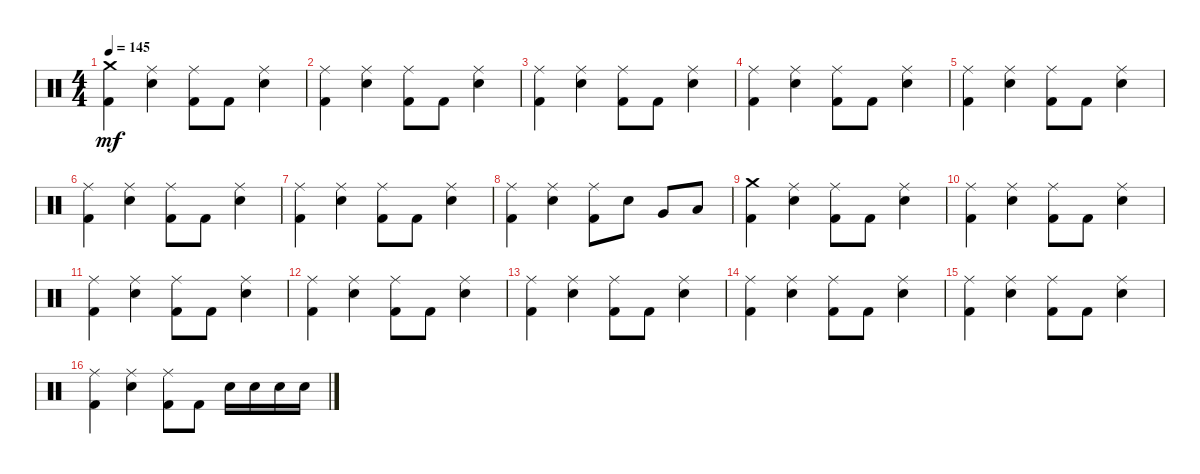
\track "" {instrument percussion}
\staff {score}
\articulation defaults
\ts (4 4)
\tempo 145
\clef neutral
\ks c
("Crash medium (hit)" "Kick (hit) 2").4{dy mf} ("Ride (middle)" "Snare (hit) 2").4 ("Ride (middle)" "Kick (hit) 2").8 "Kick (hit) 2".8 ("Ride (middle)" "Snare (hit) 2").4 |
("Ride (middle)" "Kick (hit) 2").4 ("Ride (middle)" "Snare (hit) 2").4 ("Ride (middle)" "Kick (hit) 2").8 "Kick (hit) 2".8 ("Ride (middle)" "Snare (hit) 2").4 |
("Ride (middle)" "Kick (hit) 2").4 ("Ride (middle)" "Snare (hit) 2").4 ("Ride (middle)" "Kick (hit) 2").8 "Kick (hit) 2".8 ("Ride (middle)" "Snare (hit) 2").4 |
("Ride (middle)" "Kick (hit) 2").4 ("Ride (middle)" "Snare (hit) 2").4 ("Ride (middle)" "Kick (hit) 2").8 "Kick (hit) 2".8 ("Ride (middle)" "Snare (hit) 2").4 |
("Ride (middle)" "Kick (hit) 2").4 ("Ride (middle)" "Snare (hit) 2").4 ("Ride (middle)" "Kick (hit) 2").8 "Kick (hit) 2".8 ("Ride (middle)" "Snare (hit) 2").4 |
("Ride (middle)" "Kick (hit) 2").4 ("Ride (middle)" "Snare (hit) 2").4 ("Ride (middle)" "Kick (hit) 2").8 "Kick (hit) 2".8 ("Ride (middle)" "Snare (hit) 2").4 |
("Ride (middle)" "Kick (hit) 2").4 ("Ride (middle)" "Snare (hit) 2").4 ("Ride (middle)" "Kick (hit) 2").8 "Kick (hit) 2".8 ("Ride (middle)" "Snare (hit) 2").4 |
("Ride (middle)" "Kick (hit) 2").4 ("Ride (middle)" "Snare (hit) 2").4 ("Ride (middle)" "Kick (hit) 2").8 "Snare (hit) 2".8 "Very Low Tom (hit)".8 "Low Floor Tom (hit)".8 |
("Crash medium (hit)" "Kick (hit) 2").4 ("Ride (middle)" "Snare (hit) 2").4 ("Ride (middle)" "Kick (hit) 2").8 "Kick (hit) 2".8 ("Ride (middle)" "Snare (hit) 2").4 |
("Ride (middle)" "Kick (hit) 2").4 ("Ride (middle)" "Snare (hit) 2").4 ("Ride (middle)" "Kick (hit) 2").8 "Kick (hit) 2".8 ("Ride (middle)" "Snare (hit) 2").4 |
("Ride (middle)" "Kick (hit) 2").4 ("Ride (middle)" "Snare (hit) 2").4 ("Ride (middle)" "Kick (hit) 2").8 "Kick (hit) 2".8 ("Ride (middle)" "Snare (hit) 2").4 |
("Ride (middle)" "Kick (hit) 2").4 ("Ride (middle)" "Snare (hit) 2").4 ("Ride (middle)" "Kick (hit) 2").8 "Kick (hit) 2".8 ("Ride (middle)" "Snare (hit) 2").4 |
("Ride (middle)" "Kick (hit) 2").4 ("Ride (middle)" "Snare (hit) 2").4 ("Ride (middle)" "Kick (hit) 2").8 "Kick (hit) 2".8 ("Ride (middle)" "Snare (hit) 2").4 |
("Ride (middle)" "Kick (hit) 2").4 ("Ride (middle)" "Snare (hit) 2").4 ("Ride (middle)" "Kick (hit) 2").8 "Kick (hit) 2".8 ("Ride (middle)" "Snare (hit) 2").4 |
("Ride (middle)" "Kick (hit) 2").4 ("Ride (middle)" "Snare (hit) 2").4 ("Ride (middle)" "Kick (hit) 2").8 "Kick (hit) 2".8 ("Ride (middle)" "Snare (hit) 2").4 |
("Ride (middle)" "Kick (hit) 2").4 ("Ride (middle)" "Snare (hit) 2").4 ("Ride (middle)" "Kick (hit) 2").8 "Kick (hit) 2".8 "Snare (hit) 2".16 "Snare (hit) 2".16 "Snare (hit) 2".16 "Snare (hit) 2".16
